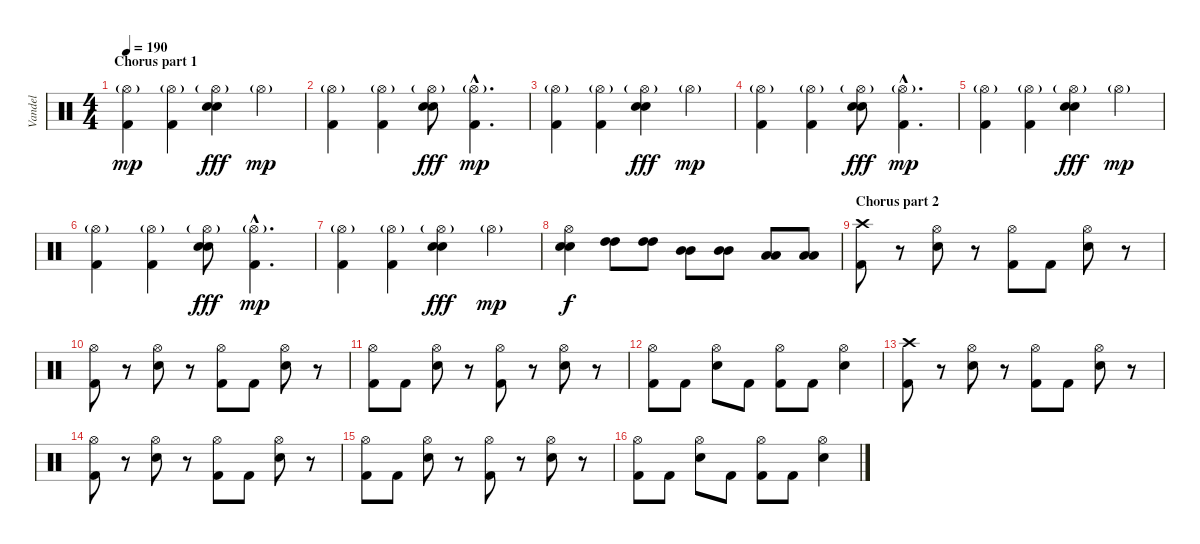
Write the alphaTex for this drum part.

\track ("Vandel" "Vandel") {instrument percussion}
\staff {score}
\articulation defaults
\ts (4 4)
\section ("" "Chorus part 1")
\tempo 190
\clef neutral
\ks c
("Hi-Hat (open)"{g} "Kick (hit) 2").4{dy mp} ("Hi-Hat (open)"{g} "Kick (hit) 2").4 ("Hi-Hat (open)"{g} "Electric Snare (hit)" "Electric Snare (hit)").4{dy fff} "Hi-Hat (open)"{g}.4{dy mp} |
("Hi-Hat (open)"{g} "Kick (hit) 2").4 ("Hi-Hat (open)"{g} "Kick (hit) 2").4 ("Hi-Hat (open)"{g} "Electric Snare (hit)" "Electric Snare (hit)").8{dy fff} ("Hi-Hat (open)"{g hac} "Kick (hit) 2"{hac}).4{d dy mp} |
("Hi-Hat (open)"{g} "Kick (hit) 2").4 ("Hi-Hat (open)"{g} "Kick (hit) 2").4 ("Hi-Hat (open)"{g} "Electric Snare (hit)" "Electric Snare (hit)").4{dy fff} "Hi-Hat (open)"{g}.4{dy mp} |
("Hi-Hat (open)"{g} "Kick (hit) 2").4 ("Hi-Hat (open)"{g} "Kick (hit) 2").4 ("Hi-Hat (open)"{g} "Electric Snare (hit)" "Electric Snare (hit)").8{dy fff} ("Hi-Hat (open)"{g hac} "Kick (hit) 2"{hac}).4{d dy mp} |
("Hi-Hat (open)"{g} "Kick (hit) 2").4 ("Hi-Hat (open)"{g} "Kick (hit) 2").4 ("Hi-Hat (open)"{g} "Electric Snare (hit)" "Electric Snare (hit)").4{dy fff} "Hi-Hat (open)"{g}.4{dy mp} |
("Hi-Hat (open)"{g} "Kick (hit) 2").4 ("Hi-Hat (open)"{g} "Kick (hit) 2").4 ("Hi-Hat (open)"{g} "Electric Snare (hit)" "Electric Snare (hit)").8{dy fff} ("Hi-Hat (open)"{g hac} "Kick (hit) 2"{hac}).4{d dy mp} |
("Hi-Hat (open)"{g} "Kick (hit) 2").4 ("Hi-Hat (open)"{g} "Kick (hit) 2").4 ("Hi-Hat (open)"{g} "Electric Snare (hit)" "Electric Snare (hit)").4{dy fff} "Hi-Hat (open)"{g}.4{dy mp} |
("Hi-Hat (open)" "Electric Snare (hit)" "Electric Snare (hit)").4{dy f} ("High Tom (hit)" "High Tom (hit)").8 ("High Tom (hit)" "High Tom (hit)").8 ("Mid Tom (hit)" "Mid Tom (hit)").8 ("Mid Tom (hit)" "Mid Tom (hit)").8 ("Low Tom (hit)" "Low Tom (hit)").8 ("Low Tom (hit)" "Low Tom (hit)").8 |
\section ("" "Chorus part 2")
("Crash high (hit)" "Kick (hit) 2").8 r.8 ("Hi-Hat (open)" "Electric Snare (hit)").8 r.8 ("Hi-Hat (open)" "Kick (hit) 2").8 "Kick (hit) 2".8 ("Hi-Hat (open)" "Electric Snare (hit)").8 r.8 |
("Hi-Hat (open)" "Kick (hit) 2").8 r.8 ("Hi-Hat (open)" "Electric Snare (hit)").8 r.8 ("Hi-Hat (open)" "Kick (hit) 2").8 "Kick (hit) 2".8 ("Hi-Hat (open)" "Electric Snare (hit)").8 r.8 |
("Hi-Hat (open)" "Kick (hit) 2").8 "Kick (hit) 2".8 ("Hi-Hat (open)" "Electric Snare (hit)").8 r.8 ("Hi-Hat (open)" "Kick (hit) 2").8 r.8 ("Hi-Hat (open)" "Electric Snare (hit)").8 r.8 |
("Hi-Hat (open)" "Kick (hit) 2").8 "Kick (hit) 2".8 ("Hi-Hat (open)" "Electric Snare (hit)").8 "Kick (hit) 2".8 ("Hi-Hat (open)" "Kick (hit) 2").8 "Kick (hit) 2".8 ("Hi-Hat (open)" "Electric Snare (hit)").4 |
("Crash high (hit)" "Kick (hit) 2").8 r.8 ("Hi-Hat (open)" "Electric Snare (hit)").8 r.8 ("Hi-Hat (open)" "Kick (hit) 2").8 "Kick (hit) 2".8 ("Hi-Hat (open)" "Electric Snare (hit)").8 r.8 |
("Hi-Hat (open)" "Kick (hit) 2").8 r.8 ("Hi-Hat (open)" "Electric Snare (hit)").8 r.8 ("Hi-Hat (open)" "Kick (hit) 2").8 "Kick (hit) 2".8 ("Hi-Hat (open)" "Electric Snare (hit)").8 r.8 |
("Hi-Hat (open)" "Kick (hit) 2").8 "Kick (hit) 2".8 ("Hi-Hat (open)" "Electric Snare (hit)").8 r.8 ("Hi-Hat (open)" "Kick (hit) 2").8 r.8 ("Hi-Hat (open)" "Electric Snare (hit)").8 r.8 |
("Hi-Hat (open)" "Kick (hit) 2").8 "Kick (hit) 2".8 ("Hi-Hat (open)" "Electric Snare (hit)").8 "Kick (hit) 2".8 ("Hi-Hat (open)" "Kick (hit) 2").8 "Kick (hit) 2".8 ("Hi-Hat (open)" "Electric Snare (hit)").4
